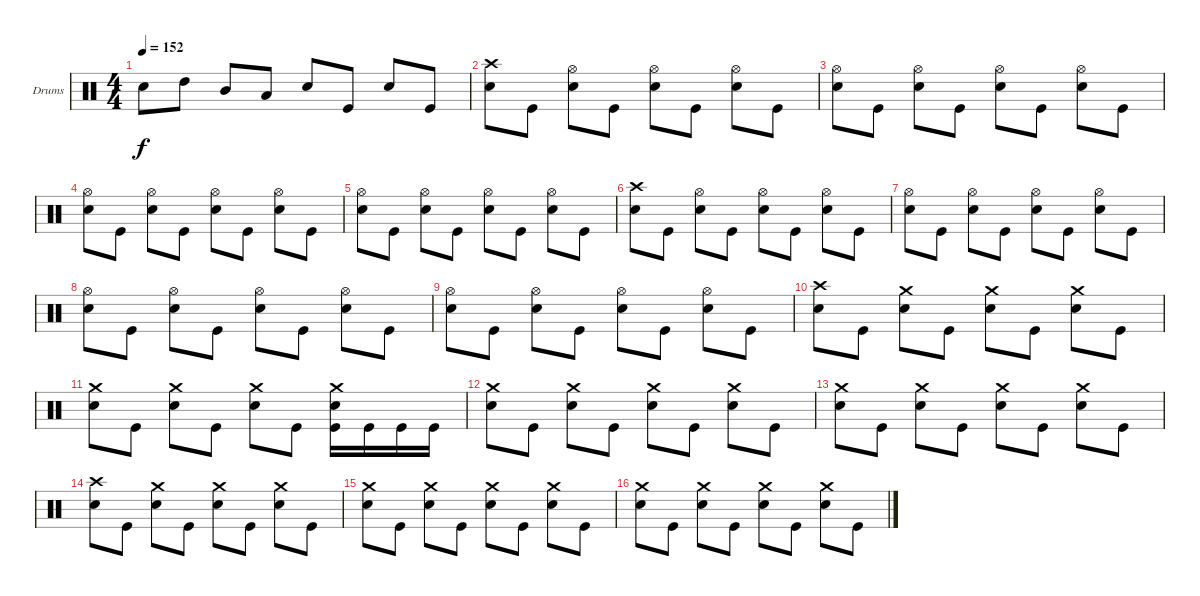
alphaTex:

\defaultSystemsLayout 4
\bracketExtendMode groupsimilarinstruments
\firstSystemTrackNameOrientation horizontal
\otherSystemsTrackNameOrientation horizontal
\track ("Drumkit" "Drums") {instrument percussion}
\staff {score}
\articulation defaults
\ts (4 4)
\tempo 152
\clef neutral
\scale
0.472222
\ks c "Snare (hit) 2".8{dy f} "High Tom (hit)".8 "Mid Tom (hit)".8 "Low Tom (hit)".8 "Snare (hit) 2".8 "Kick (hit)".8 "Snare (hit) 2".8 "Kick (hit)".8
|
\scale
0.263889 ("Snare (hit) 2" "Crash high (hit)").8 "Kick (hit)".8 ("Snare (hit) 2" "Hi-Hat (open)").8 "Kick (hit)".8 ("Snare (hit) 2" "Hi-Hat (open)").8 "Kick (hit)".8 ("Snare (hit) 2" "Hi-Hat (open)").8 "Kick (hit)".8 |
\scale
0.263889 ("Snare (hit) 2" "Hi-Hat (open)").8 "Kick (hit)".8 ("Snare (hit) 2" "Hi-Hat (open)").8 "Kick (hit)".8 ("Snare (hit) 2" "Hi-Hat (open)").8 "Kick (hit)".8 ("Snare (hit) 2" "Hi-Hat (open)").8 "Kick (hit)".8 |
\scale
0.333333 ("Snare (hit) 2" "Hi-Hat (open)").8 "Kick (hit)".8 ("Snare (hit) 2" "Hi-Hat (open)").8 "Kick (hit)".8 ("Snare (hit) 2" "Hi-Hat (open)").8 "Kick (hit)".8 ("Snare (hit) 2" "Hi-Hat (open)").8 "Kick (hit)".8 |
\scale
0.333333 ("Snare (hit) 2" "Hi-Hat (open)").8 "Kick (hit)".8 ("Snare (hit) 2" "Hi-Hat (open)").8 "Kick (hit)".8 ("Snare (hit) 2" "Hi-Hat (open)").8 "Kick (hit)".8 ("Snare (hit) 2" "Hi-Hat (open)").8 "Kick (hit)".8 |
\scale
0.333333 ("Snare (hit) 2" "Crash high (hit)").8 "Kick (hit)".8 ("Snare (hit) 2" "Hi-Hat (open)").8 "Kick (hit)".8 ("Snare (hit) 2" "Hi-Hat (open)").8 "Kick (hit)".8 ("Snare (hit) 2" "Hi-Hat (open)").8 "Kick (hit)".8 |
\scale
0.333333 ("Snare (hit) 2" "Hi-Hat (open)").8 "Kick (hit)".8 ("Snare (hit) 2" "Hi-Hat (open)").8 "Kick (hit)".8 ("Snare (hit) 2" "Hi-Hat (open)").8 "Kick (hit)".8 ("Snare (hit) 2" "Hi-Hat (open)").8 "Kick (hit)".8 |
\scale
0.333333 ("Snare (hit) 2" "Hi-Hat (open)").8 "Kick (hit)".8 ("Snare (hit) 2" "Hi-Hat (open)").8 "Kick (hit)".8 ("Snare (hit) 2" "Hi-Hat (open)").8 "Kick (hit)".8 ("Snare (hit) 2" "Hi-Hat (open)").8 "Kick (hit)".8 |
\scale
0.333333 ("Snare (hit) 2" "Hi-Hat (open)").8 "Kick (hit)".8 ("Snare (hit) 2" "Hi-Hat (open)").8 "Kick (hit)".8 ("Snare (hit) 2" "Hi-Hat (open)").8 "Kick (hit)".8 ("Snare (hit) 2" "Hi-Hat (open)").8 "Kick (hit)".8 |
\scale
0.333333 ("Snare (hit) 2" "Crash high (hit)").8 "Kick (hit)".8 ("Snare (hit) 2" "Crash medium (hit)").8 "Kick (hit)".8 ("Snare (hit) 2" "Crash medium (hit)").8 "Kick (hit)".8 ("Snare (hit) 2" "Crash medium (hit)").8 "Kick (hit)".8 |
\scale
0.333333 ("Snare (hit) 2" "Crash medium (hit)").8 "Kick (hit)".8 ("Snare (hit) 2" "Crash medium (hit)").8 "Kick (hit)".8 ("Snare (hit) 2" "Crash medium (hit)").8 "Kick (hit)".8 ("Kick (hit)" "Snare (hit) 2" "Crash medium (hit)").16 "Kick (hit)".16 "Kick (hit)".16 "Kick (hit)".16 |
\scale
0.333333 ("Snare (hit) 2" "Crash medium (hit)").8 "Kick (hit)".8 ("Snare (hit) 2" "Crash medium (hit)").8 "Kick (hit)".8 ("Snare (hit) 2" "Crash medium (hit)").8 "Kick (hit)".8 ("Snare (hit) 2" "Crash medium (hit)").8 "Kick (hit)".8 |
\scale
0.333333 ("Snare (hit) 2" "Crash medium (hit)").8 "Kick (hit)".8 ("Snare (hit) 2" "Crash medium (hit)").8 "Kick (hit)".8 ("Snare (hit) 2" "Crash medium (hit)").8 "Kick (hit)".8 ("Snare (hit) 2" "Crash medium (hit)").8 "Kick (hit)".8 |
\scale
0.333333 ("Snare (hit) 2" "Crash high (hit)").8 "Kick (hit)".8 ("Snare (hit) 2" "Crash medium (hit)").8 "Kick (hit)".8 ("Snare (hit) 2" "Crash medium (hit)").8 "Kick (hit)".8 ("Snare (hit) 2" "Crash medium (hit)").8 "Kick (hit)".8 |
\scale
0.333333 ("Snare (hit) 2" "Crash medium (hit)").8 "Kick (hit)".8 ("Snare (hit) 2" "Crash medium (hit)").8 "Kick (hit)".8 ("Snare (hit) 2" "Crash medium (hit)").8 "Kick (hit)".8 ("Snare (hit) 2" "Crash medium (hit)").8 "Kick (hit)".8 |
\scale
0.333333 ("Snare (hit) 2" "Crash medium (hit)").8 "Kick (hit)".8 ("Snare (hit) 2" "Crash medium (hit)").8 "Kick (hit)".8 ("Snare (hit) 2" "Crash medium (hit)").8 "Kick (hit)".8 ("Snare (hit) 2" "Crash medium (hit)").8 "Kick (hit)".8
